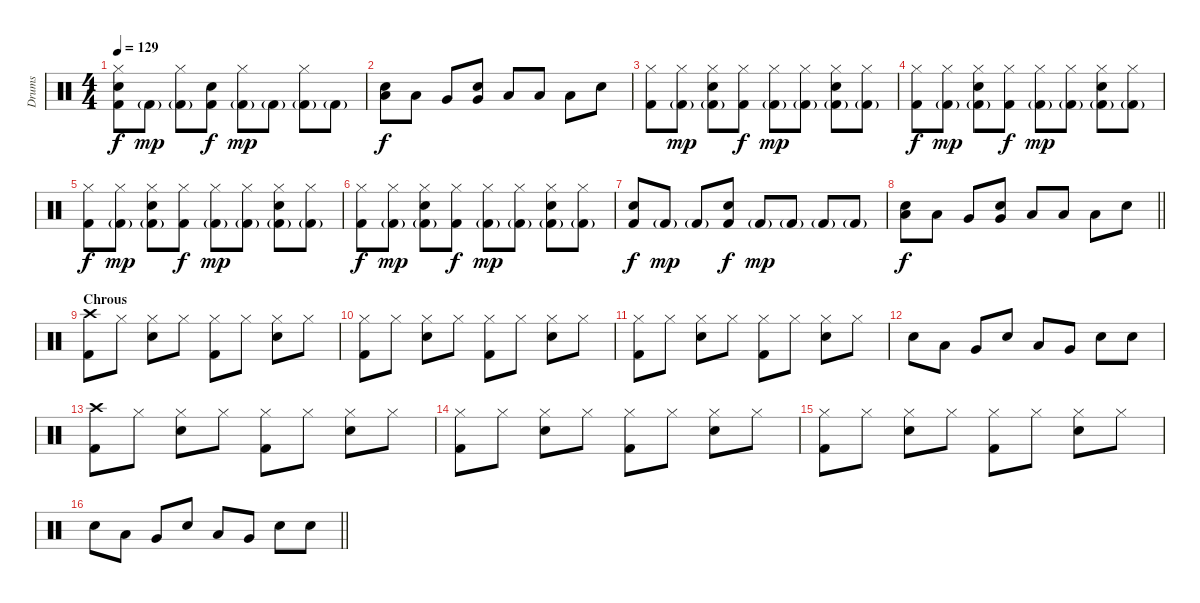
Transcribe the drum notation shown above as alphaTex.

\track ("Drums" "Drums") {instrument percussion}
\staff {score}
\articulation defaults
\ts (4 4)
\tempo 129
\clef neutral
\ks c
("Hi-Hat (closed)" "Snare (hit) 2" "Kick (hit) 2").8{dy f} "Kick (hit) 2"{g}.8{dy mp} ("Hi-Hat (closed)" "Kick (hit) 2"{g}).8 ("Snare (hit) 2" "Kick (hit) 2").8{dy f} ("Hi-Hat (closed)" "Kick (hit) 2"{g}).8{dy mp} "Kick (hit) 2"{g}.8 ("Hi-Hat (closed)" "Kick (hit) 2"{g}).8 "Kick (hit) 2"{g}.8 |
("Low Tom (hit)" "Snare (hit) 2").8{dy f} "Low Tom (hit)".8 "Very Low Tom (hit)".8 ("Very Low Tom (hit)" "Snare (hit) 2").8 "Low Floor Tom (hit)".8 "Low Floor Tom (hit)".8 "Low Floor Tom (hit)".8 "Snare (hit) 2".8 |
("Hi-Hat (closed)" "Kick (hit) 2").8 ("Hi-Hat (closed)" "Kick (hit) 2"{g}).8{dy mp} ("Hi-Hat (closed)" "Snare (hit) 2" "Kick (hit) 2"{g}).8 ("Hi-Hat (closed)" "Kick (hit) 2").8{dy f} ("Hi-Hat (closed)" "Kick (hit) 2"{g}).8{dy mp} ("Hi-Hat (closed)" "Kick (hit) 2"{g}).8 ("Hi-Hat (closed)" "Snare (hit) 2" "Kick (hit) 2"{g}).8 ("Hi-Hat (closed)" "Kick (hit) 2"{g}).8 |
("Hi-Hat (closed)" "Kick (hit) 2").8{dy f} ("Hi-Hat (closed)" "Kick (hit) 2"{g}).8{dy mp} ("Hi-Hat (closed)" "Snare (hit) 2" "Kick (hit) 2"{g}).8 ("Hi-Hat (closed)" "Kick (hit) 2").8{dy f} ("Hi-Hat (closed)" "Kick (hit) 2"{g}).8{dy mp} ("Hi-Hat (closed)" "Kick (hit) 2"{g}).8 ("Hi-Hat (closed)" "Snare (hit) 2" "Kick (hit) 2"{g}).8 ("Hi-Hat (closed)" "Kick (hit) 2"{g}).8 |
("Hi-Hat (closed)" "Kick (hit) 2").8{dy f} ("Hi-Hat (closed)" "Kick (hit) 2"{g}).8{dy mp} ("Hi-Hat (closed)" "Snare (hit) 2" "Kick (hit) 2"{g}).8 ("Hi-Hat (closed)" "Kick (hit) 2").8{dy f} ("Hi-Hat (closed)" "Kick (hit) 2"{g}).8{dy mp} ("Hi-Hat (closed)" "Kick (hit) 2"{g}).8 ("Hi-Hat (closed)" "Snare (hit) 2" "Kick (hit) 2"{g}).8 ("Hi-Hat (closed)" "Kick (hit) 2"{g}).8 |
("Hi-Hat (closed)" "Kick (hit) 2").8{dy f} ("Hi-Hat (closed)" "Kick (hit) 2"{g}).8{dy mp} ("Hi-Hat (closed)" "Snare (hit) 2" "Kick (hit) 2"{g}).8 ("Hi-Hat (closed)" "Kick (hit) 2").8{dy f} ("Hi-Hat (closed)" "Kick (hit) 2"{g}).8{dy mp} ("Hi-Hat (closed)" "Kick (hit) 2"{g}).8 ("Hi-Hat (closed)" "Snare (hit) 2" "Kick (hit) 2"{g}).8 ("Hi-Hat (closed)" "Kick (hit) 2"{g}).8 |
("Snare (hit) 2" "Kick (hit) 2").8{dy f} "Kick (hit) 2"{g}.8{dy mp} "Kick (hit) 2"{g}.8 ("Snare (hit) 2" "Kick (hit) 2").8{dy f} "Kick (hit) 2"{g}.8{dy mp} "Kick (hit) 2"{g}.8 "Kick (hit) 2"{g}.8 "Kick (hit) 2"{g}.8 |
\barLineRight lightlight
("Low Tom (hit)" "Snare (hit) 2").8{dy f} "Low Tom (hit)".8 "Very Low Tom (hit)".8 ("Very Low Tom (hit)" "Snare (hit) 2").8 "Low Floor Tom (hit)".8 "Low Floor Tom (hit)".8 "Low Floor Tom (hit)".8 "Snare (hit) 2".8 |
\section ("" "Chrous")
("Crash high (hit)" "Kick (hit) 2").8 "Hi-Hat (closed)".8 ("Hi-Hat (closed)" "Snare (hit) 2").8 "Hi-Hat (closed)".8 ("Hi-Hat (closed)" "Kick (hit) 2").8 "Hi-Hat (closed)".8 ("Hi-Hat (closed)" "Snare (hit) 2").8 "Hi-Hat (closed)".8 |
("Hi-Hat (closed)" "Kick (hit) 2").8 "Hi-Hat (closed)".8 ("Hi-Hat (closed)" "Snare (hit) 2").8 "Hi-Hat (closed)".8 ("Hi-Hat (closed)" "Kick (hit) 2").8 "Hi-Hat (closed)".8 ("Hi-Hat (closed)" "Snare (hit) 2").8 "Hi-Hat (closed)".8 |
("Hi-Hat (closed)" "Kick (hit) 2").8 "Hi-Hat (closed)".8 ("Hi-Hat (closed)" "Snare (hit) 2").8 "Hi-Hat (closed)".8 ("Hi-Hat (closed)" "Kick (hit) 2").8 "Hi-Hat (closed)".8 ("Hi-Hat (closed)" "Snare (hit) 2").8 "Hi-Hat (closed)".8 |
"Snare (hit) 2".8 "Low Tom (hit)".8 "Very Low Tom (hit)".8 "Snare (hit) 2".8 "Low Tom (hit)".8 "Very Low Tom (hit)".8 "Snare (hit) 2".8 "Snare (hit) 2".8 |
("Crash high (hit)" "Kick (hit) 2").8 "Hi-Hat (closed)".8 ("Hi-Hat (closed)" "Snare (hit) 2").8 "Hi-Hat (closed)".8 ("Hi-Hat (closed)" "Kick (hit) 2").8 "Hi-Hat (closed)".8 ("Hi-Hat (closed)" "Snare (hit) 2").8 "Hi-Hat (closed)".8 |
("Hi-Hat (closed)" "Kick (hit) 2").8 "Hi-Hat (closed)".8 ("Hi-Hat (closed)" "Snare (hit) 2").8 "Hi-Hat (closed)".8 ("Hi-Hat (closed)" "Kick (hit) 2").8 "Hi-Hat (closed)".8 ("Hi-Hat (closed)" "Snare (hit) 2").8 "Hi-Hat (closed)".8 |
("Hi-Hat (closed)" "Kick (hit) 2").8 "Hi-Hat (closed)".8 ("Hi-Hat (closed)" "Snare (hit) 2").8 "Hi-Hat (closed)".8 ("Hi-Hat (closed)" "Kick (hit) 2").8 "Hi-Hat (closed)".8 ("Hi-Hat (closed)" "Snare (hit) 2").8 "Hi-Hat (closed)".8 |
\barLineRight lightlight "Snare (hit) 2".8 "Low Tom (hit)".8 "Very Low Tom (hit)".8 "Snare (hit) 2".8 "Low Tom (hit)".8 "Very Low Tom (hit)".8 "Snare (hit) 2".8 "Snare (hit) 2".8
